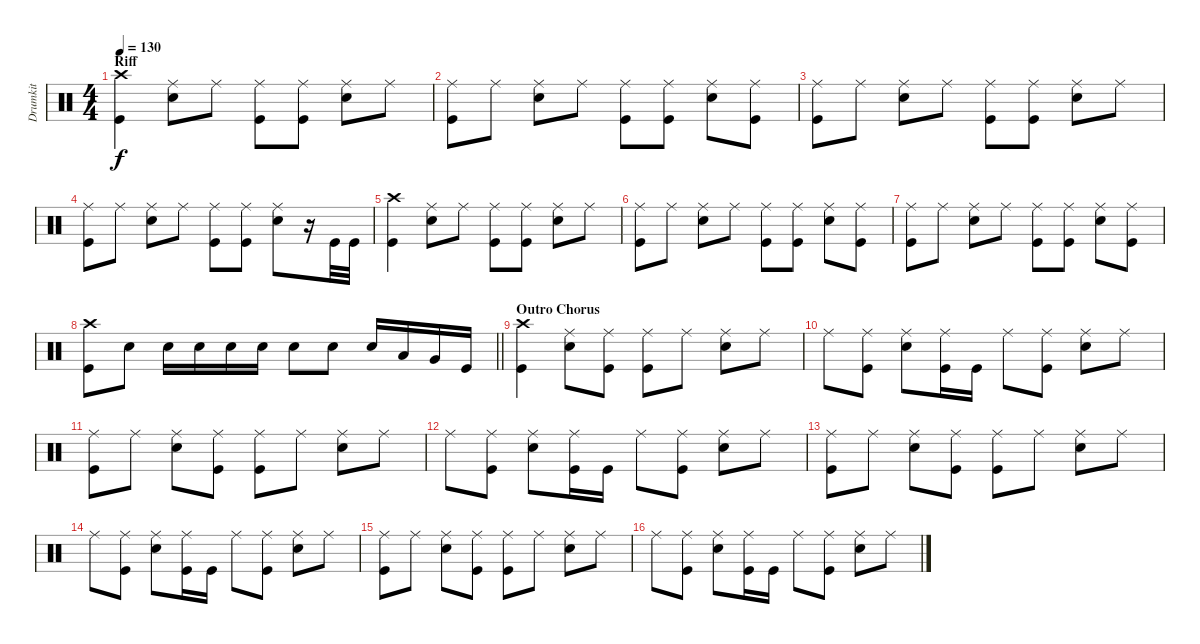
\track ("Drumkit" "Drumkit") {instrument percussion}
\staff {score}
\articulation defaults
\ts (4 4)
\section ("" "Riff")
\tempo 130
\clef neutral
\ks c
("Crash high (hit)" "Kick (hit)").4{dy f} ("Ride (middle)" "Snare (hit) 2").8 "Ride (middle)".8 ("Ride (middle)" "Kick (hit)").8 ("Ride (middle)" "Kick (hit)").8 ("Ride (middle)" "Snare (hit) 2").8 "Ride (middle)".8 |
("Ride (middle)" "Kick (hit)").8 "Ride (middle)".8 ("Ride (middle)" "Snare (hit) 2").8 "Ride (middle)".8 ("Ride (middle)" "Kick (hit)").8 ("Ride (middle)" "Kick (hit)").8 ("Ride (middle)" "Snare (hit) 2").8 ("Ride (middle)" "Kick (hit)").8 |
("Ride (middle)" "Kick (hit)").8 "Ride (middle)".8 ("Ride (middle)" "Snare (hit) 2").8 "Ride (middle)".8 ("Ride (middle)" "Kick (hit)").8 ("Ride (middle)" "Kick (hit)").8 ("Ride (middle)" "Snare (hit) 2").8 "Ride (middle)".8 |
("Ride (middle)" "Kick (hit)").8 "Ride (middle)".8 ("Ride (middle)" "Snare (hit) 2").8 "Ride (middle)".8 ("Ride (middle)" "Kick (hit)").8 ("Ride (middle)" "Kick (hit)").8 ("Ride (middle)" "Snare (hit) 2").8 r.16 "Kick (hit)".32 "Kick (hit)".32 |
("Crash high (hit)" "Kick (hit)").4 ("Ride (middle)" "Snare (hit) 2").8 "Ride (middle)".8 ("Ride (middle)" "Kick (hit)").8 ("Ride (middle)" "Kick (hit)").8 ("Ride (middle)" "Snare (hit) 2").8 "Ride (middle)".8 |
("Ride (middle)" "Kick (hit)").8 "Ride (middle)".8 ("Ride (middle)" "Snare (hit) 2").8 "Ride (middle)".8 ("Ride (middle)" "Kick (hit)").8 ("Ride (middle)" "Kick (hit)").8 ("Ride (middle)" "Snare (hit) 2").8 ("Ride (middle)" "Kick (hit)").8 |
("Ride (middle)" "Kick (hit)").8 "Ride (middle)".8 ("Ride (middle)" "Snare (hit) 2").8 "Ride (middle)".8 ("Ride (middle)" "Kick (hit)").8 ("Ride (middle)" "Kick (hit)").8 ("Ride (middle)" "Snare (hit) 2").8 ("Ride (middle)" "Kick (hit)").8 |
\barLineRight lightlight
("Kick (hit)" "Crash high (hit)").8 "Snare (hit) 2".8 "Snare (hit) 2".16 "Snare (hit) 2".16 "Snare (hit) 2".16 "Snare (hit) 2".16 "Snare (hit) 2".8 "Snare (hit) 2".8 "Snare (hit) 2".16 "Low Tom (hit)".16 "Very Low Tom (hit)".16 "Kick (hit)".16 |
\section ("" "Outro Chorus")
("Kick (hit)" "Crash high (hit)").4 ("Snare (hit) 2" "Ride (middle)").8 ("Kick (hit)" "Ride (middle)").8 ("Kick (hit)" "Ride (middle)").8 "Ride (middle)".8 ("Snare (hit) 2" "Ride (middle)").8 "Ride (middle)".8 |
"Ride (middle)".8 ("Kick (hit)" "Ride (middle)").8 ("Snare (hit) 2" "Ride (middle)").8 ("Kick (hit)" "Ride (middle)").16 "Kick (hit)".16 "Ride (middle)".8 ("Kick (hit)" "Ride (middle)").8 ("Snare (hit) 2" "Ride (middle)").8 "Ride (middle)".8 |
("Kick (hit)" "Ride (middle)").8 "Ride (middle)".8 ("Snare (hit) 2" "Ride (middle)").8 ("Kick (hit)" "Ride (middle)").8 ("Kick (hit)" "Ride (middle)").8 "Ride (middle)".8 ("Snare (hit) 2" "Ride (middle)").8 "Ride (middle)".8 |
"Ride (middle)".8 ("Kick (hit)" "Ride (middle)").8 ("Snare (hit) 2" "Ride (middle)").8 ("Kick (hit)" "Ride (middle)").16 "Kick (hit)".16 "Ride (middle)".8 ("Kick (hit)" "Ride (middle)").8 ("Snare (hit) 2" "Ride (middle)").8 "Ride (middle)".8 |
("Kick (hit)" "Ride (middle)").8 "Ride (middle)".8 ("Snare (hit) 2" "Ride (middle)").8 ("Kick (hit)" "Ride (middle)").8 ("Kick (hit)" "Ride (middle)").8 "Ride (middle)".8 ("Snare (hit) 2" "Ride (middle)").8 "Ride (middle)".8 |
"Ride (middle)".8 ("Kick (hit)" "Ride (middle)").8 ("Snare (hit) 2" "Ride (middle)").8 ("Kick (hit)" "Ride (middle)").16 "Kick (hit)".16 "Ride (middle)".8 ("Kick (hit)" "Ride (middle)").8 ("Snare (hit) 2" "Ride (middle)").8 "Ride (middle)".8 |
("Kick (hit)" "Ride (middle)").8 "Ride (middle)".8 ("Snare (hit) 2" "Ride (middle)").8 ("Kick (hit)" "Ride (middle)").8 ("Kick (hit)" "Ride (middle)").8 "Ride (middle)".8 ("Snare (hit) 2" "Ride (middle)").8 "Ride (middle)".8 |
"Ride (middle)".8 ("Kick (hit)" "Ride (middle)").8 ("Snare (hit) 2" "Ride (middle)").8 ("Kick (hit)" "Ride (middle)").16 "Kick (hit)".16 "Ride (middle)".8 ("Kick (hit)" "Ride (middle)").8 ("Snare (hit) 2" "Ride (middle)").8 "Ride (middle)".8
